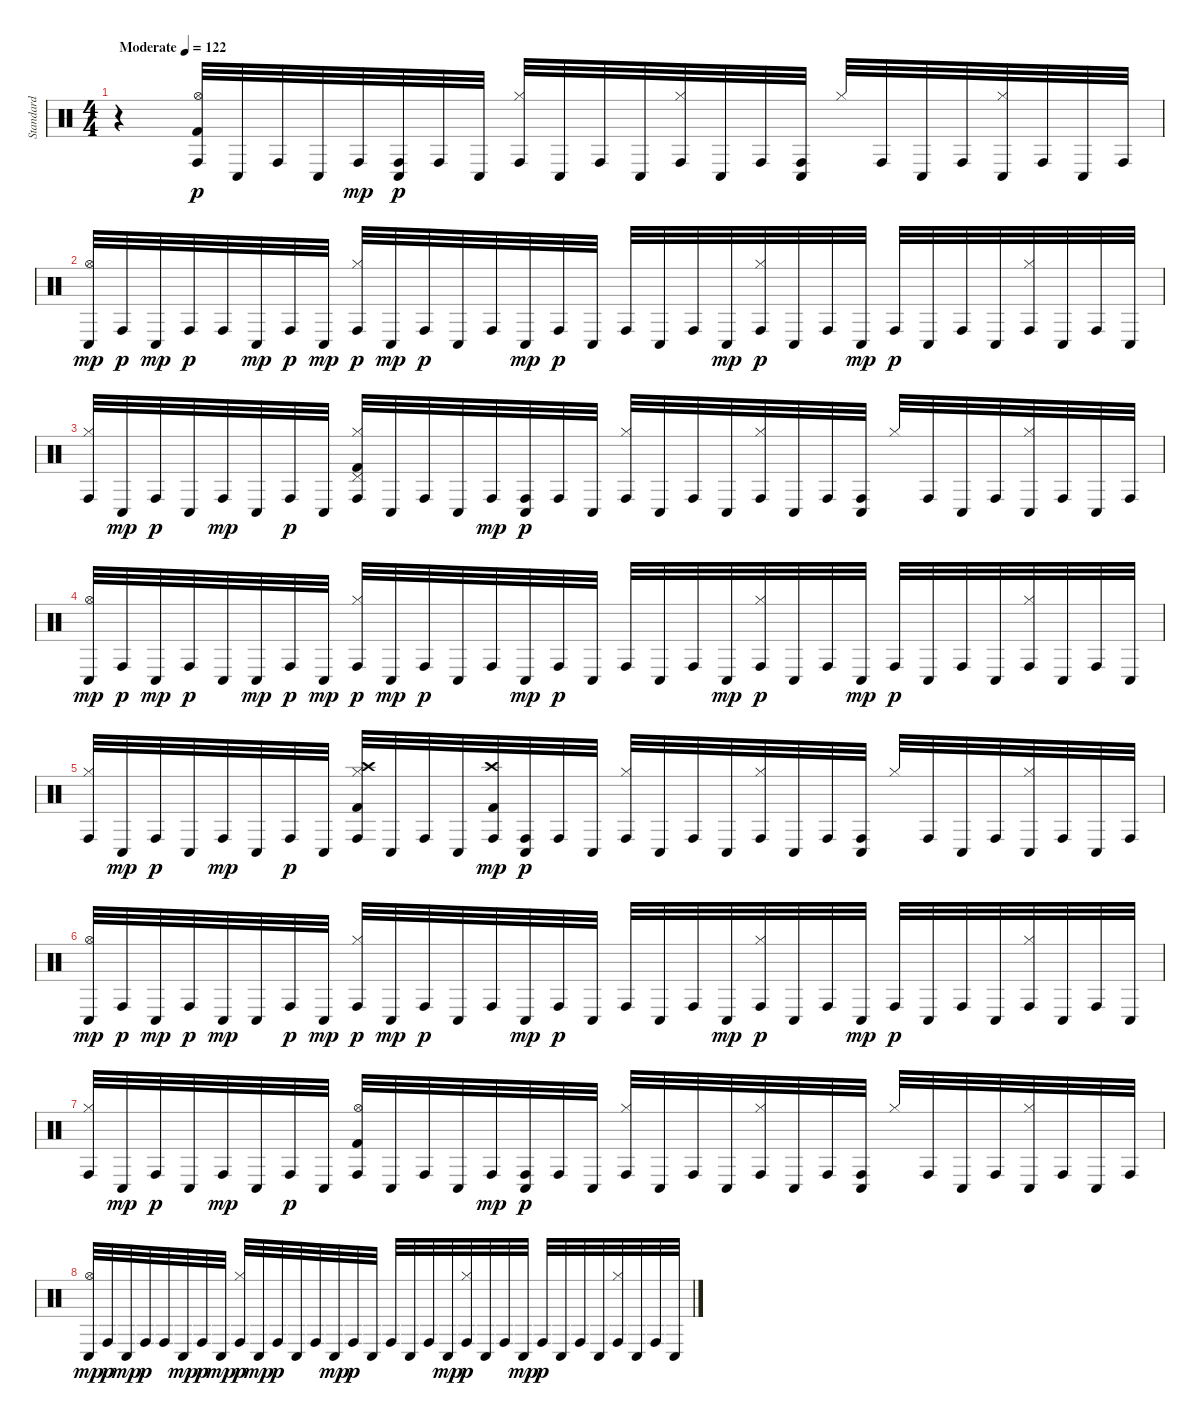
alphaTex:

\track (" Standard" " Standard") {instrument percussion}
\staff {score}
\articulation defaults
\ts (4 4)
\tempo (122 "Moderate")
\clef neutral
\ks c
r.4{dy p} ("Kick (hit) 2" "Hi-Hat (open)" "Conga high (hit)").32 "Conga low (hit)".32 "Conga high (hit)".32 "Conga low (hit)".32 "Conga high (hit)".32{dy mp} ("Conga high (hit)" "Conga low (hit)").32{dy p} "Conga high (hit)".32 "Conga low (hit)".32 ("Hi-Hat (closed)" "Conga high (hit)").32 "Conga low (hit)".32 "Conga high (hit)".32 "Conga low (hit)".32 ("Hi-Hat (closed)" "Conga high (hit)").32 "Conga low (hit)".32 "Conga high (hit)".32 ("Conga high (hit)" "Conga low (hit)").32 "Hi-Hat (closed)".32 "Conga high (hit)".32 "Conga low (hit)".32 "Conga high (hit)".32 ("Hi-Hat (closed)" "Conga low (hit)").32 "Conga high (hit)".32 "Conga low (hit)".32 "Conga high (hit)".32 |
("Hi-Hat (open)" "Conga low (hit)").32{dy mp} "Conga high (hit)".32{dy p} "Conga low (hit)".32{dy mp} "Conga high (hit)".32{dy p} "Conga high (hit)".32 "Conga low (hit)".32{dy mp} "Conga high (hit)".32{dy p} "Conga low (hit)".32{dy mp} ("Hi-Hat (closed)" "Conga high (hit)").32{dy p} "Conga low (hit)".32{dy mp} "Conga high (hit)".32{dy p} "Conga low (hit)".32 "Conga high (hit)".32 "Conga low (hit)".32{dy mp} "Conga high (hit)".32{dy p} "Conga low (hit)".32 "Conga high (hit)".32 "Conga low (hit)".32 "Conga high (hit)".32 "Conga low (hit)".32{dy mp} ("Hi-Hat (closed)" "Conga high (hit)").32{dy p} "Conga low (hit)".32 "Conga high (hit)".32 "Conga low (hit)".32{dy mp} "Conga high (hit)".32{dy p} "Conga low (hit)".32 "Conga high (hit)".32 "Conga low (hit)".32 ("Hi-Hat (closed)" "Conga high (hit)").32 "Conga low (hit)".32 "Conga high (hit)".32 "Conga low (hit)".32 |
("Hi-Hat (closed)" "Conga high (hit)").32 "Conga low (hit)".32{dy mp} "Conga high (hit)".32{dy p} "Conga low (hit)".32 "Conga high (hit)".32{dy mp} "Conga low (hit)".32 "Conga high (hit)".32{dy p} "Conga low (hit)".32 ("Kick (hit) 2" "Hi-Hat (closed)" "Pedal Hi-Hat (hit)" "Conga high (hit)").32 "Conga low (hit)".32 "Conga high (hit)".32 "Conga low (hit)".32 "Conga high (hit)".32{dy mp} ("Conga high (hit)" "Conga low (hit)").32{dy p} "Conga high (hit)".32 "Conga low (hit)".32 ("Hi-Hat (closed)" "Conga high (hit)").32 "Conga low (hit)".32 "Conga high (hit)".32 "Conga low (hit)".32 ("Hi-Hat (closed)" "Conga high (hit)").32 "Conga low (hit)".32 "Conga high (hit)".32 ("Conga high (hit)" "Conga low (hit)").32 "Hi-Hat (closed)".32 "Conga high (hit)".32 "Conga low (hit)".32 "Conga high (hit)".32 ("Hi-Hat (closed)" "Conga low (hit)").32 "Conga high (hit)".32 "Conga low (hit)".32 "Conga high (hit)".32 |
("Hi-Hat (open)" "Conga low (hit)").32{dy mp} "Conga high (hit)".32{dy p} "Conga low (hit)".32{dy mp} "Conga high (hit)".32{dy p} "Conga low (hit)".32 "Conga low (hit)".32{dy mp} "Conga high (hit)".32{dy p} "Conga low (hit)".32{dy mp} ("Hi-Hat (closed)" "Conga high (hit)").32{dy p} "Conga low (hit)".32{dy mp} "Conga high (hit)".32{dy p} "Conga low (hit)".32 "Conga high (hit)".32 "Conga low (hit)".32{dy mp} "Conga high (hit)".32{dy p} "Conga low (hit)".32 "Conga high (hit)".32 "Conga low (hit)".32 "Conga high (hit)".32 "Conga low (hit)".32{dy mp} ("Hi-Hat (closed)" "Conga high (hit)").32{dy p} "Conga low (hit)".32 "Conga high (hit)".32 "Conga low (hit)".32{dy mp} "Conga high (hit)".32{dy p} "Conga low (hit)".32 "Conga high (hit)".32 "Conga low (hit)".32 ("Hi-Hat (closed)" "Conga high (hit)").32 "Conga low (hit)".32 "Conga high (hit)".32 "Conga low (hit)".32 |
("Hi-Hat (closed)" "Conga high (hit)").32 "Conga low (hit)".32{dy mp} "Conga high (hit)".32{dy p} "Conga low (hit)".32 "Conga high (hit)".32{dy mp} "Conga low (hit)".32 "Conga high (hit)".32{dy p} "Conga low (hit)".32 ("Kick (hit) 2" "Hi-Hat (closed)" "Crash high (hit)" "Conga high (hit)").32 "Conga low (hit)".32 "Conga high (hit)".32 "Conga low (hit)".32 ("Kick (hit) 2" "Crash high (hit)" "Conga high (hit)").32{dy mp} ("Conga high (hit)" "Conga low (hit)").32{dy p} "Conga high (hit)".32 "Conga low (hit)".32 ("Hi-Hat (closed)" "Conga high (hit)").32 "Conga low (hit)".32 "Conga high (hit)".32 "Conga low (hit)".32 ("Hi-Hat (closed)" "Conga high (hit)").32 "Conga low (hit)".32 "Conga high (hit)".32 ("Conga high (hit)" "Conga low (hit)").32 "Hi-Hat (closed)".32 "Conga high (hit)".32 "Conga low (hit)".32 "Conga high (hit)".32 ("Hi-Hat (closed)" "Conga low (hit)").32 "Conga high (hit)".32 "Conga low (hit)".32 "Conga high (hit)".32 |
("Hi-Hat (open)" "Conga low (hit)").32{dy mp} "Conga high (hit)".32{dy p} "Conga low (hit)".32{dy mp} "Conga high (hit)".32{dy p} "Conga low (hit)".32{dy mp} "Conga low (hit)".32 "Conga high (hit)".32{dy p} "Conga low (hit)".32{dy mp} ("Hi-Hat (closed)" "Conga high (hit)").32{dy p} "Conga low (hit)".32{dy mp} "Conga high (hit)".32{dy p} "Conga low (hit)".32 "Conga high (hit)".32 "Conga low (hit)".32{dy mp} "Conga high (hit)".32{dy p} "Conga low (hit)".32 "Conga high (hit)".32 "Conga low (hit)".32 "Conga high (hit)".32 "Conga low (hit)".32{dy mp} ("Hi-Hat (closed)" "Conga high (hit)").32{dy p} "Conga low (hit)".32 "Conga high (hit)".32 "Conga low (hit)".32{dy mp} "Conga high (hit)".32{dy p} "Conga low (hit)".32 "Conga high (hit)".32 "Conga low (hit)".32 ("Hi-Hat (closed)" "Conga high (hit)").32 "Conga low (hit)".32 "Conga high (hit)".32 "Conga low (hit)".32 |
("Hi-Hat (closed)" "Conga high (hit)").32 "Conga low (hit)".32{dy mp} "Conga high (hit)".32{dy p} "Conga low (hit)".32 "Conga high (hit)".32{dy mp} "Conga low (hit)".32 "Conga high (hit)".32{dy p} "Conga low (hit)".32 ("Kick (hit) 2" "Hi-Hat (open)" "Conga high (hit)").32 "Conga low (hit)".32 "Conga high (hit)".32 "Conga low (hit)".32 "Conga high (hit)".32{dy mp} ("Conga high (hit)" "Conga low (hit)").32{dy p} "Conga high (hit)".32 "Conga low (hit)".32 ("Hi-Hat (closed)" "Conga high (hit)").32 "Conga low (hit)".32 "Conga high (hit)".32 "Conga low (hit)".32 ("Hi-Hat (closed)" "Conga high (hit)").32 "Conga low (hit)".32 "Conga high (hit)".32 ("Conga high (hit)" "Conga low (hit)").32 "Hi-Hat (closed)".32 "Conga high (hit)".32 "Conga low (hit)".32 "Conga high (hit)".32 ("Hi-Hat (closed)" "Conga low (hit)").32 "Conga high (hit)".32 "Conga low (hit)".32 "Conga high (hit)".32 |
("Hi-Hat (open)" "Conga low (hit)").32{dy mp} "Conga high (hit)".32{dy p} "Conga low (hit)".32{dy mp} "Conga high (hit)".32{dy p} "Conga high (hit)".32 "Conga low (hit)".32{dy mp} "Conga high (hit)".32{dy p} "Conga low (hit)".32{dy mp} ("Hi-Hat (closed)" "Conga high (hit)").32{dy p} "Conga low (hit)".32{dy mp} "Conga high (hit)".32{dy p} "Conga low (hit)".32 "Conga high (hit)".32 "Conga low (hit)".32{dy mp} "Conga high (hit)".32{dy p} "Conga low (hit)".32 "Conga high (hit)".32 "Conga low (hit)".32 "Conga high (hit)".32 "Conga low (hit)".32{dy mp} ("Hi-Hat (closed)" "Conga high (hit)").32{dy p} "Conga low (hit)".32 "Conga high (hit)".32 "Conga low (hit)".32{dy mp} "Conga high (hit)".32{dy p} "Conga low (hit)".32 "Conga high (hit)".32 "Conga low (hit)".32 ("Hi-Hat (closed)" "Conga high (hit)").32 "Conga low (hit)".32 "Conga high (hit)".32 "Conga low (hit)".32
